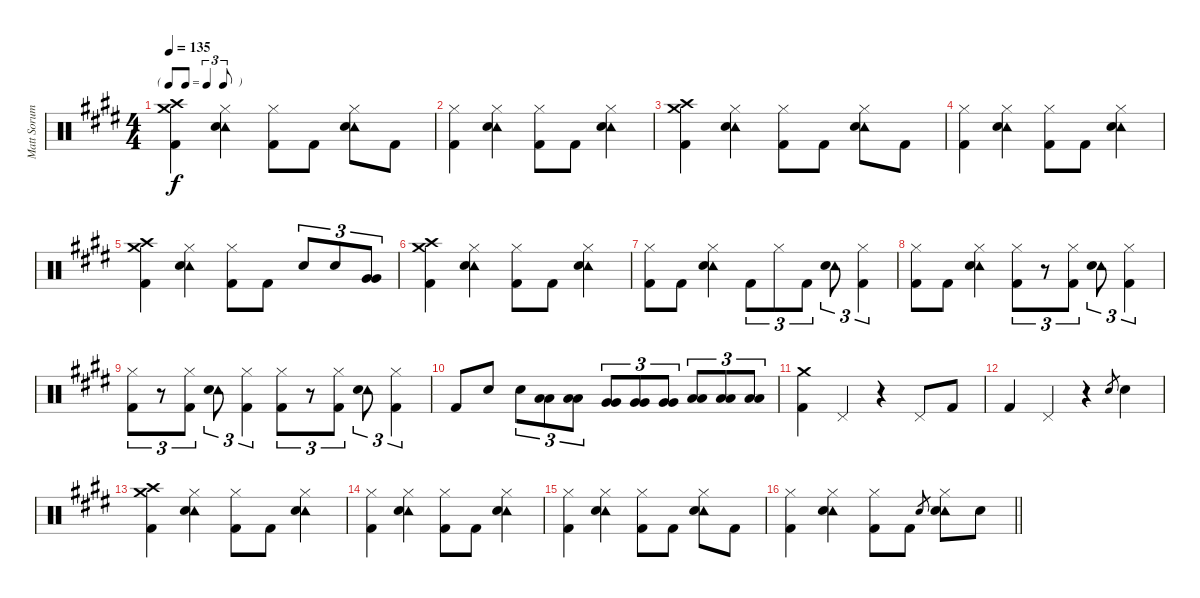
\track ("Matt Sorum - Drums" "Matt Sorum") {instrument percussion}
\staff {score}
\articulation defaults
\ts (4 4)
\tf triplet8th
\tempo 135
\clef neutral
\ks e
("Crash medium (hit)" "Crash high (hit)" "Kick (hit) 2").4{dy f} ("Hi-Hat (closed)" "Tambourine (hit)" "Snare (hit) 2").4 ("Hi-Hat (closed)" "Kick (hit) 2").8 "Kick (hit) 2".8 ("Hi-Hat (closed)" "Tambourine (hit)" "Snare (hit) 2").8 "Kick (hit) 2".8 |
("Hi-Hat (closed)" "Kick (hit) 2").4 ("Hi-Hat (closed)" "Tambourine (hit)" "Snare (hit) 2").4 ("Hi-Hat (closed)" "Kick (hit) 2").8 "Kick (hit) 2".8 ("Hi-Hat (closed)" "Tambourine (hit)" "Snare (hit) 2").4 |
("Crash medium (hit)" "Crash high (hit)" "Kick (hit) 2").4 ("Hi-Hat (closed)" "Tambourine (hit)" "Snare (hit) 2").4 ("Hi-Hat (closed)" "Kick (hit) 2").8 "Kick (hit) 2".8 ("Hi-Hat (closed)" "Tambourine (hit)" "Snare (hit) 2").8 "Kick (hit) 2".8 |
("Hi-Hat (closed)" "Kick (hit) 2").4 ("Hi-Hat (closed)" "Tambourine (hit)" "Snare (hit) 2").4 ("Hi-Hat (closed)" "Kick (hit) 2").8 "Kick (hit) 2".8 ("Hi-Hat (closed)" "Tambourine (hit)" "Snare (hit) 2").4 |
("Crash medium (hit)" "Crash high (hit)" "Kick (hit) 2").4 ("Hi-Hat (closed)" "Tambourine (hit)" "Snare (hit) 2").4 ("Hi-Hat (closed)" "Kick (hit) 2").8 "Kick (hit) 2".8 "Snare (hit) 2".8{tu (3 2)} "Snare (hit) 2".8{tu (3 2)} ("Very Low Tom (hit)" "Very Low Tom (hit)").8{tu (3 2)} |
("Crash medium (hit)" "Crash high (hit)" "Kick (hit) 2").4 ("Hi-Hat (closed)" "Tambourine (hit)" "Snare (hit) 2").4 ("Hi-Hat (closed)" "Kick (hit) 2").8 "Kick (hit) 2".8 ("Hi-Hat (closed)" "Tambourine (hit)" "Snare (hit) 2").4 |
("Hi-Hat (closed)" "Kick (hit) 2").8 "Kick (hit) 2".8 ("Hi-Hat (closed)" "Tambourine (hit)" "Snare (hit) 2").4 "Kick (hit) 2".8{tu (3 2)} "Hi-Hat (closed)".8{tu (3 2)} "Kick (hit) 2".8{tu (3 2)} ("Tambourine (hit)" "Snare (hit) 2").8{tu (3 2)} ("Hi-Hat (closed)" "Kick (hit) 2").4{tu (3 2)} |
("Hi-Hat (closed)" "Kick (hit) 2").8 "Kick (hit) 2".8 ("Hi-Hat (closed)" "Tambourine (hit)" "Snare (hit) 2").4 ("Hi-Hat (closed)" "Kick (hit) 2").8{tu (3 2)} r.8{tu (3 2)} ("Hi-Hat (closed)" "Kick (hit) 2").8{tu (3 2)} ("Tambourine (hit)" "Snare (hit) 2").8{tu (3 2)} ("Hi-Hat (closed)" "Kick (hit) 2").4{tu (3 2)} |
("Hi-Hat (closed)" "Kick (hit) 2").8{tu (3 2)} r.8{tu (3 2)} ("Hi-Hat (closed)" "Kick (hit) 2").8{tu (3 2)} ("Tambourine (hit)" "Snare (hit) 2").8{tu (3 2)} ("Hi-Hat (closed)" "Kick (hit) 2").4{tu (3 2)} ("Hi-Hat (closed)" "Kick (hit) 2").8{tu (3 2)} r.8{tu (3 2)} ("Hi-Hat (closed)" "Kick (hit) 2").8{tu (3 2)} ("Tambourine (hit)" "Snare (hit) 2").8{tu (3 2)} ("Hi-Hat (closed)" "Kick (hit) 2").4{tu (3 2)} |
"Kick (hit) 2".8 "Snare (hit) 2".8 "Snare (hit) 2".8{tu (3 2)} ("Low Tom (hit)" "Low Tom (hit)").8{tu (3 2)} ("Low Tom (hit)" "Low Tom (hit)").8{tu (3 2)} ("Very Low Tom (hit)" "Very Low Tom (hit)").8{tu (3 2)} ("Very Low Tom (hit)" "Very Low Tom (hit)").8{tu (3 2)} ("Very Low Tom (hit)" "Very Low Tom (hit)").8{tu (3 2)} ("Low Floor Tom (hit)" "Low Floor Tom (hit)").8{tu (3 2)} ("Low Floor Tom (hit)" "Low Floor Tom (hit)").8{tu (3 2)} ("Low Floor Tom (hit)" "Low Floor Tom (hit)").8{tu (3 2)} |
("Crash medium (hit)" "Kick (hit) 2").4 "Pedal Hi-Hat (hit)".4 r.4 "Pedal Hi-Hat (hit)".8 "Kick (hit) 2".8 |
"Kick (hit) 2".4 "Pedal Hi-Hat (hit)".4 r.4 "Snare (hit) 2".8{gr} "Snare (hit) 2".4 |
("Crash medium (hit)" "Crash high (hit)" "Kick (hit) 2").4 ("Hi-Hat (closed)" "Tambourine (hit)" "Snare (hit) 2").4 ("Hi-Hat (closed)" "Kick (hit) 2").8 "Kick (hit) 2".8 ("Hi-Hat (closed)" "Tambourine (hit)" "Snare (hit) 2").4 |
("Hi-Hat (closed)" "Kick (hit) 2").4 ("Hi-Hat (closed)" "Tambourine (hit)" "Snare (hit) 2").4 ("Hi-Hat (closed)" "Kick (hit) 2").8 "Kick (hit) 2".8 ("Hi-Hat (closed)" "Tambourine (hit)" "Snare (hit) 2").4 |
("Hi-Hat (closed)" "Kick (hit) 2").4 ("Hi-Hat (closed)" "Tambourine (hit)" "Snare (hit) 2").4 ("Hi-Hat (closed)" "Kick (hit) 2").8 "Kick (hit) 2".8 ("Hi-Hat (closed)" "Tambourine (hit)" "Snare (hit) 2").8 "Kick (hit) 2".8 |
\barLineRight lightlight
("Hi-Hat (closed)" "Kick (hit) 2").4 ("Hi-Hat (closed)" "Tambourine (hit)" "Snare (hit) 2").4 ("Hi-Hat (closed)" "Kick (hit) 2").8 "Kick (hit) 2".8 "Snare (hit) 2".8{gr} ("Hi-Hat (closed)" "Tambourine (hit)" "Snare (hit) 2").8 "Snare (hit) 2".8
